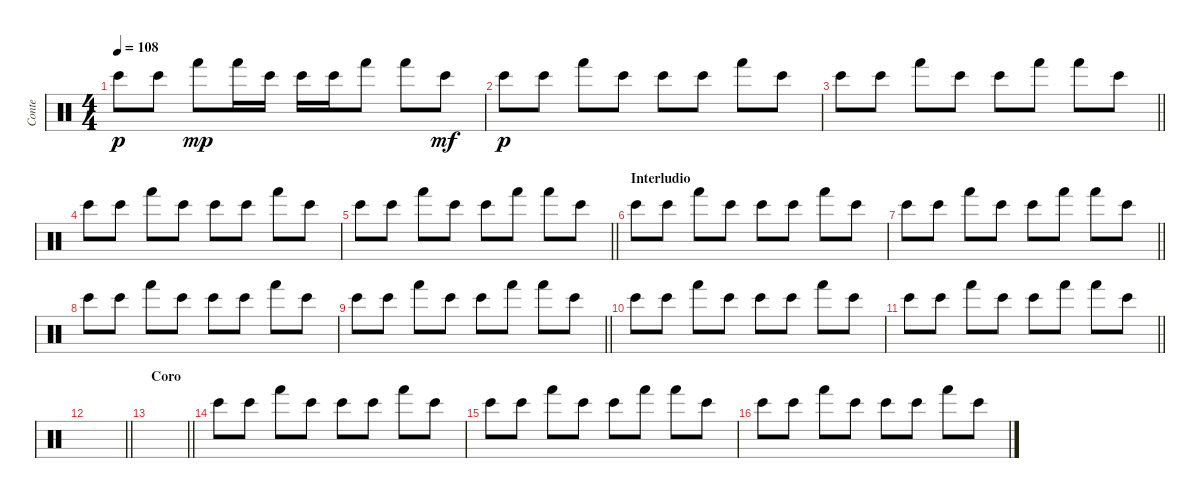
\track ("Conte" "Conte") {instrument percussion}
\staff {score}
\articulation defaults
\ts (4 4)
\tempo 108
\clef neutral
\ks c "Bongo High (hit)".8{dy p} "Bongo High (hit)".8 "Hand (hit)".8{dy mp} "Hand (hit)".16 "Bongo High (hit)".16 "Bongo High (hit)".16 "Bongo High (hit)".16 "Hand (hit)".8 "Hand (hit)".8 "Bongo High (hit)".8{dy mf}
|
"Bongo High (hit)".8{dy p} "Bongo High (hit)".8 "Hand (hit)".8 "Bongo High (hit)".8 "Bongo High (hit)".8 "Bongo High (hit)".8 "Hand (hit)".8 "Bongo High (hit)".8 |
\barLineRight lightlight "Bongo High (hit)".8 "Bongo High (hit)".8 "Hand (hit)".8 "Bongo High (hit)".8 "Bongo High (hit)".8 "Hand (hit)".8 "Hand (hit)".8 "Bongo High (hit)".8
|
"Bongo High (hit)".8 "Bongo High (hit)".8 "Hand (hit)".8 "Bongo High (hit)".8 "Bongo High (hit)".8 "Bongo High (hit)".8 "Hand (hit)".8 "Bongo High (hit)".8 |
\barLineRight lightlight "Bongo High (hit)".8 "Bongo High (hit)".8 "Hand (hit)".8 "Bongo High (hit)".8 "Bongo High (hit)".8 "Hand (hit)".8 "Hand (hit)".8 "Bongo High (hit)".8
|
\section ("" "Interludio")
"Bongo High (hit)".8 "Bongo High (hit)".8 "Hand (hit)".8 "Bongo High (hit)".8 "Bongo High (hit)".8 "Bongo High (hit)".8 "Hand (hit)".8 "Bongo High (hit)".8 |
\barLineRight lightlight "Bongo High (hit)".8 "Bongo High (hit)".8 "Hand (hit)".8 "Bongo High (hit)".8 "Bongo High (hit)".8 "Hand (hit)".8 "Hand (hit)".8 "Bongo High (hit)".8
|
"Bongo High (hit)".8 "Bongo High (hit)".8 "Hand (hit)".8 "Bongo High (hit)".8 "Bongo High (hit)".8 "Bongo High (hit)".8 "Hand (hit)".8 "Bongo High (hit)".8 |
\barLineRight lightlight "Bongo High (hit)".8 "Bongo High (hit)".8 "Hand (hit)".8 "Bongo High (hit)".8 "Bongo High (hit)".8 "Hand (hit)".8 "Hand (hit)".8 "Bongo High (hit)".8
|
"Bongo High (hit)".8 "Bongo High (hit)".8 "Hand (hit)".8 "Bongo High (hit)".8 "Bongo High (hit)".8 "Bongo High (hit)".8 "Hand (hit)".8 "Bongo High (hit)".8 |
\barLineRight lightlight "Bongo High (hit)".8 "Bongo High (hit)".8 "Hand (hit)".8 "Bongo High (hit)".8 "Bongo High (hit)".8 "Hand (hit)".8 "Hand (hit)".8 "Bongo High (hit)".8
|
\barLineRight lightlight
|
\section ("" "Coro")
\barLineRight lightlight
|
"Bongo High (hit)".8 "Bongo High (hit)".8 "Hand (hit)".8 "Bongo High (hit)".8 "Bongo High (hit)".8 "Bongo High (hit)".8 "Hand (hit)".8 "Bongo High (hit)".8 |
"Bongo High (hit)".8 "Bongo High (hit)".8 "Hand (hit)".8 "Bongo High (hit)".8 "Bongo High (hit)".8 "Hand (hit)".8 "Hand (hit)".8 "Bongo High (hit)".8 |
"Bongo High (hit)".8 "Bongo High (hit)".8 "Hand (hit)".8 "Bongo High (hit)".8 "Bongo High (hit)".8 "Bongo High (hit)".8 "Hand (hit)".8 "Bongo High (hit)".8
